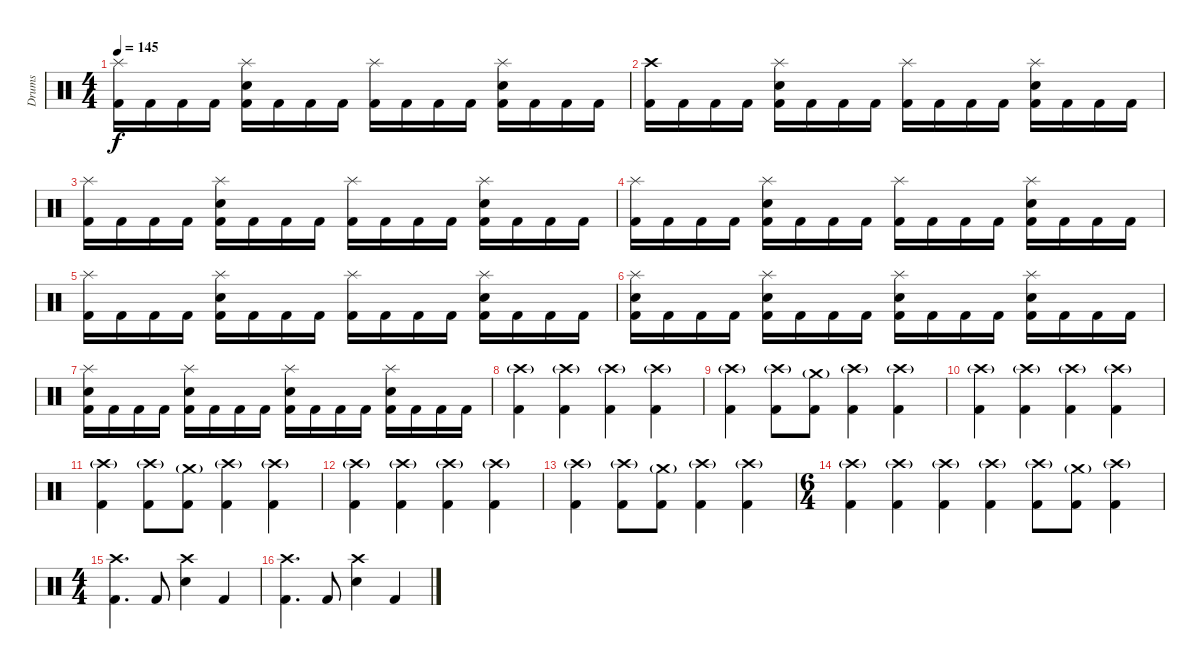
\track ("Drums" "Drums") {instrument percussion}
\staff {score}
\articulation defaults
\ts (4 4)
\tempo 145
\clef neutral
\ks c
("Splash (hit)" "Kick (hit) 2").16{dy f} "Kick (hit) 2".16 "Kick (hit) 2".16 "Kick (hit) 2".16 ("Splash (hit)" "Snare (hit) 2" "Kick (hit) 2").16 "Kick (hit) 2".16 "Kick (hit) 2".16 "Kick (hit) 2".16 ("Splash (hit)" "Kick (hit) 2").16 "Kick (hit) 2".16 "Kick (hit) 2".16 "Kick (hit) 2".16 ("Splash (hit)" "Snare (hit) 2" "Kick (hit) 2").16 "Kick (hit) 2".16 "Kick (hit) 2".16 "Kick (hit) 2".16 |
("Crash high (hit)" "Kick (hit) 2").16 "Kick (hit) 2".16 "Kick (hit) 2".16 "Kick (hit) 2".16 ("Splash (hit)" "Snare (hit) 2" "Kick (hit) 2").16 "Kick (hit) 2".16 "Kick (hit) 2".16 "Kick (hit) 2".16 ("Splash (hit)" "Kick (hit) 2").16 "Kick (hit) 2".16 "Kick (hit) 2".16 "Kick (hit) 2".16 ("Splash (hit)" "Snare (hit) 2" "Kick (hit) 2").16 "Kick (hit) 2".16 "Kick (hit) 2".16 "Kick (hit) 2".16 |
("Splash (hit)" "Kick (hit) 2").16 "Kick (hit) 2".16 "Kick (hit) 2".16 "Kick (hit) 2".16 ("Splash (hit)" "Snare (hit) 2" "Kick (hit) 2").16 "Kick (hit) 2".16 "Kick (hit) 2".16 "Kick (hit) 2".16 ("Splash (hit)" "Kick (hit) 2").16 "Kick (hit) 2".16 "Kick (hit) 2".16 "Kick (hit) 2".16 ("Splash (hit)" "Snare (hit) 2" "Kick (hit) 2").16 "Kick (hit) 2".16 "Kick (hit) 2".16 "Kick (hit) 2".16 |
("Splash (hit)" "Kick (hit) 2").16 "Kick (hit) 2".16 "Kick (hit) 2".16 "Kick (hit) 2".16 ("Splash (hit)" "Snare (hit) 2" "Kick (hit) 2").16 "Kick (hit) 2".16 "Kick (hit) 2".16 "Kick (hit) 2".16 ("Splash (hit)" "Kick (hit) 2").16 "Kick (hit) 2".16 "Kick (hit) 2".16 "Kick (hit) 2".16 ("Splash (hit)" "Snare (hit) 2" "Kick (hit) 2").16 "Kick (hit) 2".16 "Kick (hit) 2".16 "Kick (hit) 2".16 |
("Splash (hit)" "Kick (hit) 2").16 "Kick (hit) 2".16 "Kick (hit) 2".16 "Kick (hit) 2".16 ("Splash (hit)" "Snare (hit) 2" "Kick (hit) 2").16 "Kick (hit) 2".16 "Kick (hit) 2".16 "Kick (hit) 2".16 ("Splash (hit)" "Kick (hit) 2").16 "Kick (hit) 2".16 "Kick (hit) 2".16 "Kick (hit) 2".16 ("Splash (hit)" "Snare (hit) 2" "Kick (hit) 2").16 "Kick (hit) 2".16 "Kick (hit) 2".16 "Kick (hit) 2".16 |
("Splash (hit)" "Snare (hit) 2" "Kick (hit) 2").16 "Kick (hit) 2".16 "Kick (hit) 2".16 "Kick (hit) 2".16 ("Splash (hit)" "Snare (hit) 2" "Kick (hit) 2").16 "Kick (hit) 2".16 "Kick (hit) 2".16 "Kick (hit) 2".16 ("Splash (hit)" "Snare (hit) 2" "Kick (hit) 2").16 "Kick (hit) 2".16 "Kick (hit) 2".16 "Kick (hit) 2".16 ("Splash (hit)" "Snare (hit) 2" "Kick (hit) 2").16 "Kick (hit) 2".16 "Kick (hit) 2".16 "Kick (hit) 2".16 |
("Splash (hit)" "Snare (hit) 2" "Kick (hit) 2").16 "Kick (hit) 2".16 "Kick (hit) 2".16 "Kick (hit) 2".16 ("Splash (hit)" "Snare (hit) 2" "Kick (hit) 2").16 "Kick (hit) 2".16 "Kick (hit) 2".16 "Kick (hit) 2".16 ("Splash (hit)" "Snare (hit) 2" "Kick (hit) 2").16 "Kick (hit) 2".16 "Kick (hit) 2".16 "Kick (hit) 2".16 ("Splash (hit)" "Snare (hit) 2" "Kick (hit) 2").16 "Kick (hit) 2".16 "Kick (hit) 2".16 "Kick (hit) 2".16 |
("Crash high (hit)"{g} "Kick (hit) 2").4 ("Crash high (hit)"{g} "Kick (hit) 2").4 ("Crash high (hit)"{g} "Kick (hit) 2").4 ("Crash high (hit)"{g} "Kick (hit) 2").4 |
("Crash high (hit)"{g} "Kick (hit) 2").4 ("Crash high (hit)"{g} "Kick (hit) 2").8 ("Crash medium (hit)"{g} "Kick (hit) 2").8 ("Crash high (hit)"{g} "Kick (hit) 2").4 ("Crash high (hit)"{g} "Kick (hit) 2").4 |
("Crash high (hit)"{g} "Kick (hit) 2").4 ("Crash high (hit)"{g} "Kick (hit) 2").4 ("Crash high (hit)"{g} "Kick (hit) 2").4 ("Crash high (hit)"{g} "Kick (hit) 2").4 |
("Crash high (hit)"{g} "Kick (hit) 2").4 ("Crash high (hit)"{g} "Kick (hit) 2").8 ("Crash medium (hit)"{g} "Kick (hit) 2").8 ("Crash high (hit)"{g} "Kick (hit) 2").4 ("Crash high (hit)"{g} "Kick (hit) 2").4 |
("Crash high (hit)"{g} "Kick (hit) 2").4 ("Crash high (hit)"{g} "Kick (hit) 2").4 ("Crash high (hit)"{g} "Kick (hit) 2").4 ("Crash high (hit)"{g} "Kick (hit) 2").4 |
("Crash high (hit)"{g} "Kick (hit) 2").4 ("Crash high (hit)"{g} "Kick (hit) 2").8 ("Crash medium (hit)"{g} "Kick (hit) 2").8 ("Crash high (hit)"{g} "Kick (hit) 2").4 ("Crash high (hit)"{g} "Kick (hit) 2").4 |
\ts (6 4)
("Crash high (hit)"{g} "Kick (hit) 2").4 ("Crash high (hit)"{g} "Kick (hit) 2").4 ("Crash high (hit)"{g} "Kick (hit) 2").4 ("Crash high (hit)"{g} "Kick (hit) 2").4 ("Crash high (hit)"{g} "Kick (hit) 2").8 ("Crash medium (hit)"{g} "Kick (hit) 2").8 ("Crash high (hit)"{g} "Kick (hit) 2").4 |
\ts (4 4)
("Crash high (hit)" "Kick (hit) 2").4{d} "Kick (hit) 2".8 ("Crash high (hit)" "Snare (hit) 2").4 "Kick (hit) 2".4 |
("Crash high (hit)" "Kick (hit) 2").4{d} "Kick (hit) 2".8 ("Crash high (hit)" "Snare (hit) 2").4 "Kick (hit) 2".4
